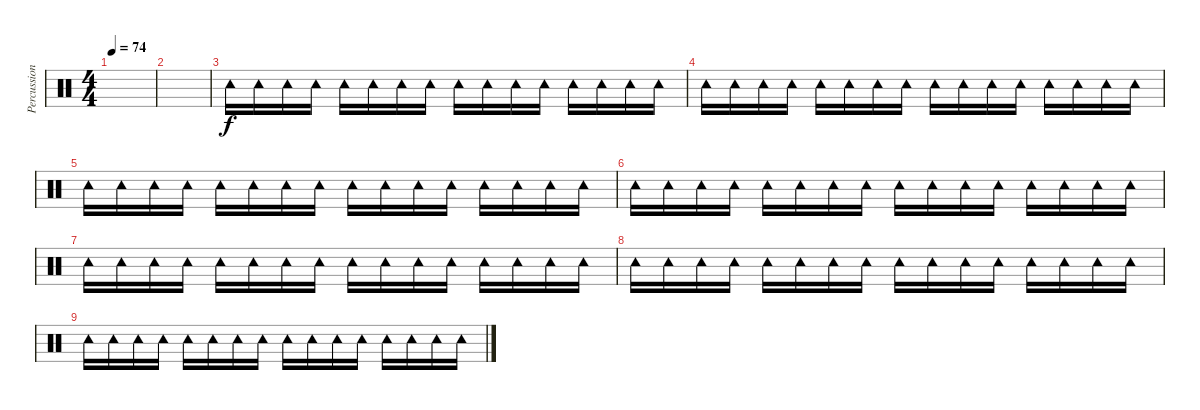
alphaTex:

\track ("Percussion" "Percussion") {instrument percussion}
\staff {score}
\articulation defaults
\ts (4 4)
\tempo 74
\clef neutral
\ks c
|
|
"Tambourine (hit)".16 "Tambourine (hit)".16 "Tambourine (hit)".16 "Tambourine (hit)".16 "Tambourine (hit)".16 "Tambourine (hit)".16 "Tambourine (hit)".16 "Tambourine (hit)".16 "Tambourine (hit)".16 "Tambourine (hit)".16 "Tambourine (hit)".16 "Tambourine (hit)".16 "Tambourine (hit)".16 "Tambourine (hit)".16 "Tambourine (hit)".16 "Tambourine (hit)".16 |
"Tambourine (hit)".16 "Tambourine (hit)".16 "Tambourine (hit)".16 "Tambourine (hit)".16 "Tambourine (hit)".16 "Tambourine (hit)".16 "Tambourine (hit)".16 "Tambourine (hit)".16 "Tambourine (hit)".16 "Tambourine (hit)".16 "Tambourine (hit)".16 "Tambourine (hit)".16 "Tambourine (hit)".16 "Tambourine (hit)".16 "Tambourine (hit)".16 "Tambourine (hit)".16 |
"Tambourine (hit)".16 "Tambourine (hit)".16 "Tambourine (hit)".16 "Tambourine (hit)".16 "Tambourine (hit)".16 "Tambourine (hit)".16 "Tambourine (hit)".16 "Tambourine (hit)".16 "Tambourine (hit)".16 "Tambourine (hit)".16 "Tambourine (hit)".16 "Tambourine (hit)".16 "Tambourine (hit)".16 "Tambourine (hit)".16 "Tambourine (hit)".16 "Tambourine (hit)".16 |
"Tambourine (hit)".16 "Tambourine (hit)".16 "Tambourine (hit)".16 "Tambourine (hit)".16 "Tambourine (hit)".16 "Tambourine (hit)".16 "Tambourine (hit)".16 "Tambourine (hit)".16 "Tambourine (hit)".16 "Tambourine (hit)".16 "Tambourine (hit)".16 "Tambourine (hit)".16 "Tambourine (hit)".16 "Tambourine (hit)".16 "Tambourine (hit)".16 "Tambourine (hit)".16 |
"Tambourine (hit)".16 "Tambourine (hit)".16 "Tambourine (hit)".16 "Tambourine (hit)".16 "Tambourine (hit)".16 "Tambourine (hit)".16 "Tambourine (hit)".16 "Tambourine (hit)".16 "Tambourine (hit)".16 "Tambourine (hit)".16 "Tambourine (hit)".16 "Tambourine (hit)".16 "Tambourine (hit)".16 "Tambourine (hit)".16 "Tambourine (hit)".16 "Tambourine (hit)".16 |
"Tambourine (hit)".16 "Tambourine (hit)".16 "Tambourine (hit)".16 "Tambourine (hit)".16 "Tambourine (hit)".16 "Tambourine (hit)".16 "Tambourine (hit)".16 "Tambourine (hit)".16 "Tambourine (hit)".16 "Tambourine (hit)".16 "Tambourine (hit)".16 "Tambourine (hit)".16 "Tambourine (hit)".16 "Tambourine (hit)".16 "Tambourine (hit)".16 "Tambourine (hit)".16 |
"Tambourine (hit)".16 "Tambourine (hit)".16 "Tambourine (hit)".16 "Tambourine (hit)".16 "Tambourine (hit)".16 "Tambourine (hit)".16 "Tambourine (hit)".16 "Tambourine (hit)".16 "Tambourine (hit)".16 "Tambourine (hit)".16 "Tambourine (hit)".16 "Tambourine (hit)".16 "Tambourine (hit)".16 "Tambourine (hit)".16 "Tambourine (hit)".16 "Tambourine (hit)".16
